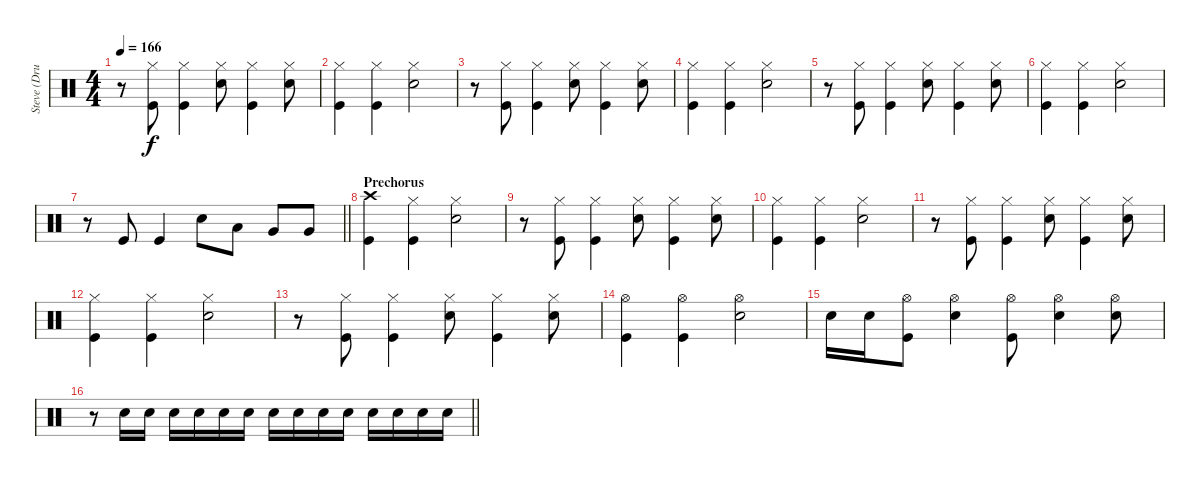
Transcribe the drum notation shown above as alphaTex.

\track ("Steve (Drums)" "Steve (Dru") {instrument percussion}
\staff {score}
\articulation defaults
\ts (4 4)
\tempo 166
\clef neutral
\ks c
r.8{dy f} ("Hi-Hat (closed)" "Kick (hit)").8 ("Hi-Hat (closed)" "Kick (hit)").4 ("Hi-Hat (closed)" "Electric Snare (hit)").8 ("Hi-Hat (closed)" "Kick (hit)").4 ("Hi-Hat (closed)" "Electric Snare (hit)").8 |
("Hi-Hat (closed)" "Kick (hit)").4 ("Hi-Hat (closed)" "Kick (hit)").4 ("Hi-Hat (closed)" "Electric Snare (hit)").2 |
r.8 ("Hi-Hat (closed)" "Kick (hit)").8 ("Hi-Hat (closed)" "Kick (hit)").4 ("Hi-Hat (closed)" "Electric Snare (hit)").8 ("Hi-Hat (closed)" "Kick (hit)").4 ("Hi-Hat (closed)" "Electric Snare (hit)").8 |
("Hi-Hat (closed)" "Kick (hit)").4 ("Hi-Hat (closed)" "Kick (hit)").4 ("Hi-Hat (closed)" "Electric Snare (hit)").2 |
r.8 ("Hi-Hat (closed)" "Kick (hit)").8 ("Hi-Hat (closed)" "Kick (hit)").4 ("Hi-Hat (closed)" "Electric Snare (hit)").8 ("Hi-Hat (closed)" "Kick (hit)").4 ("Hi-Hat (closed)" "Electric Snare (hit)").8 |
("Hi-Hat (closed)" "Kick (hit)").4 ("Hi-Hat (closed)" "Kick (hit)").4 ("Hi-Hat (closed)" "Electric Snare (hit)").2 |
\barLineRight lightlight
r.8 "Kick (hit)".8 "Kick (hit)".4 "Electric Snare (hit)".8 "Low Tom (hit)".8 "Very Low Tom (hit)".8 "Very Low Tom (hit)".8 |
\section ("" "Prechorus")
("Crash high (hit)" "Kick (hit)").4 ("Hi-Hat (closed)" "Kick (hit)").4 ("Hi-Hat (closed)" "Electric Snare (hit)").2 |
r.8 ("Hi-Hat (closed)" "Kick (hit)").8 ("Hi-Hat (closed)" "Kick (hit)").4 ("Hi-Hat (closed)" "Electric Snare (hit)").8 ("Hi-Hat (closed)" "Kick (hit)").4 ("Hi-Hat (closed)" "Electric Snare (hit)").8 |
("Hi-Hat (closed)" "Kick (hit)").4 ("Hi-Hat (closed)" "Kick (hit)").4 ("Hi-Hat (closed)" "Electric Snare (hit)").2 |
r.8 ("Hi-Hat (closed)" "Kick (hit)").8 ("Hi-Hat (closed)" "Kick (hit)").4 ("Hi-Hat (closed)" "Electric Snare (hit)").8 ("Hi-Hat (closed)" "Kick (hit)").4 ("Hi-Hat (closed)" "Electric Snare (hit)").8 |
("Hi-Hat (closed)" "Kick (hit)").4 ("Hi-Hat (closed)" "Kick (hit)").4 ("Hi-Hat (closed)" "Electric Snare (hit)").2 |
r.8 ("Hi-Hat (closed)" "Kick (hit)").8 ("Hi-Hat (closed)" "Kick (hit)").4 ("Hi-Hat (closed)" "Electric Snare (hit)").8 ("Hi-Hat (closed)" "Kick (hit)").4 ("Hi-Hat (closed)" "Electric Snare (hit)").8 |
("Hi-Hat (open)" "Kick (hit)").4 ("Hi-Hat (open)" "Kick (hit)").4 ("Hi-Hat (open)" "Electric Snare (hit)").2 |
"Electric Snare (hit)".16 "Electric Snare (hit)".16 ("Hi-Hat (open)" "Kick (hit)").8 ("Hi-Hat (open)" "Electric Snare (hit)").4 ("Hi-Hat (open)" "Kick (hit)").8 ("Hi-Hat (open)" "Electric Snare (hit)").4 ("Hi-Hat (open)" "Electric Snare (hit)").8 |
\barLineRight lightlight
r.8 "Electric Snare (hit)".16 "Electric Snare (hit)".16 "Electric Snare (hit)".16 "Electric Snare (hit)".16 "Electric Snare (hit)".16 "Electric Snare (hit)".16 "Electric Snare (hit)".16 "Electric Snare (hit)".16 "Electric Snare (hit)".16 "Electric Snare (hit)".16 "Electric Snare (hit)".16 "Electric Snare (hit)".16 "Electric Snare (hit)".16 "Electric Snare (hit)".16
